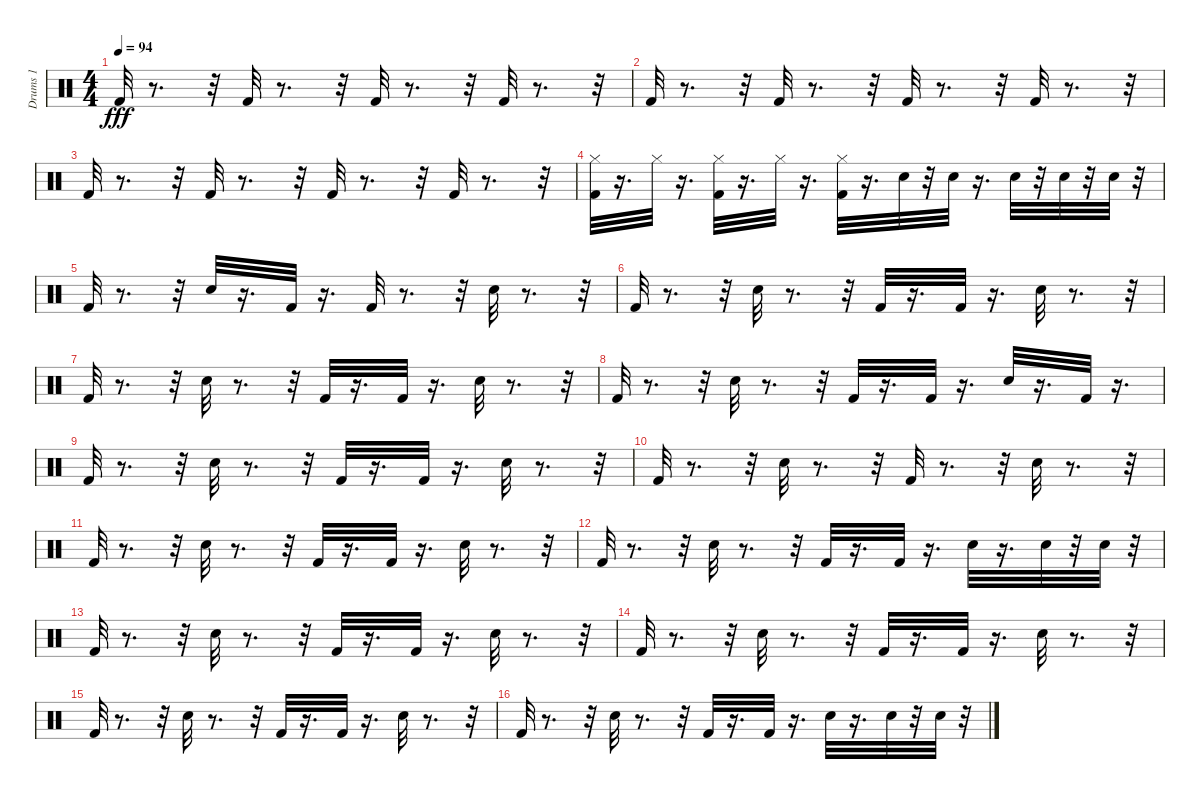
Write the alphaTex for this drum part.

\track ("Drums 1" "Drums 1") {instrument percussion}
\staff {score}
\articulation defaults
\ts (4 4)
\tempo 94
\clef neutral
\ks c "Kick (hit) 2".32{dy fff}
r.8{d} r.32 "Kick (hit) 2".32 r.8{d} r.32 "Kick (hit) 2".32 r.8{d} r.32 "Kick (hit) 2".32 r.8{d} r.32 |
"Kick (hit) 2".32 r.8{d} r.32 "Kick (hit) 2".32 r.8{d} r.32 "Kick (hit) 2".32 r.8{d} r.32 "Kick (hit) 2".32 r.8{d} r.32 |
"Kick (hit) 2".32 r.8{d} r.32 "Kick (hit) 2".32 r.8{d} r.32 "Kick (hit) 2".32 r.8{d} r.32 "Kick (hit) 2".32 r.8{d} r.32 |
("Kick (hit) 2" "Hi-Hat (closed)").32 r.16{d} "Hi-Hat (closed)".32 r.16{d} ("Kick (hit) 2" "Hi-Hat (closed)").32 r.16{d} "Hi-Hat (closed)".32 r.16{d} ("Hi-Hat (closed)" "Kick (hit) 2").32 r.16{d} "Electric Snare (hit)".32 r.32 "Electric Snare (hit)".32 r.16{d} "Electric Snare (hit)".32 r.32 "Electric Snare (hit)".32 r.32 "Electric Snare (hit)".32 r.32 |
"Kick (hit) 2".32 r.8{d} r.32 "Electric Snare (hit)".32 r.16{d} "Kick (hit) 2".32 r.16{d} "Kick (hit) 2".32 r.8{d} r.32 "Electric Snare (hit)".32 r.8{d} r.32 |
"Kick (hit) 2".32 r.8{d} r.32 "Electric Snare (hit)".32 r.8{d} r.32 "Kick (hit) 2".32 r.16{d} "Kick (hit) 2".32 r.16{d} "Electric Snare (hit)".32 r.8{d} r.32 |
"Kick (hit) 2".32 r.8{d} r.32 "Electric Snare (hit)".32 r.8{d} r.32 "Kick (hit) 2".32 r.16{d} "Kick (hit) 2".32 r.16{d} "Electric Snare (hit)".32 r.8{d} r.32 |
"Kick (hit) 2".32 r.8{d} r.32 "Electric Snare (hit)".32 r.8{d} r.32 "Kick (hit) 2".32 r.16{d} "Kick (hit) 2".32 r.16{d} "Electric Snare (hit)".32 r.16{d} "Kick (hit) 2".32 r.16{d} |
"Kick (hit) 2".32 r.8{d} r.32 "Electric Snare (hit)".32 r.8{d} r.32 "Kick (hit) 2".32 r.16{d} "Kick (hit) 2".32 r.16{d} "Electric Snare (hit)".32 r.8{d} r.32 |
"Kick (hit) 2".32 r.8{d} r.32 "Electric Snare (hit)".32 r.8{d} r.32 "Kick (hit) 2".32 r.8{d} r.32 "Electric Snare (hit)".32 r.8{d} r.32 |
"Kick (hit) 2".32 r.8{d} r.32 "Electric Snare (hit)".32 r.8{d} r.32 "Kick (hit) 2".32 r.16{d} "Kick (hit) 2".32 r.16{d} "Electric Snare (hit)".32 r.8{d} r.32 |
"Kick (hit) 2".32 r.8{d} r.32 "Electric Snare (hit)".32 r.8{d} r.32 "Kick (hit) 2".32 r.16{d} "Kick (hit) 2".32 r.16{d} "Electric Snare (hit)".32 r.16{d} "Electric Snare (hit)".32 r.32 "Electric Snare (hit)".32 r.32 |
"Kick (hit) 2".32 r.8{d} r.32 "Electric Snare (hit)".32 r.8{d} r.32 "Kick (hit) 2".32 r.16{d} "Kick (hit) 2".32 r.16{d} "Electric Snare (hit)".32 r.8{d} r.32 |
"Kick (hit) 2".32 r.8{d} r.32 "Electric Snare (hit)".32 r.8{d} r.32 "Kick (hit) 2".32 r.16{d} "Kick (hit) 2".32 r.16{d} "Electric Snare (hit)".32 r.8{d} r.32 |
"Kick (hit) 2".32 r.8{d} r.32 "Electric Snare (hit)".32 r.8{d} r.32 "Kick (hit) 2".32 r.16{d} "Kick (hit) 2".32 r.16{d} "Electric Snare (hit)".32 r.8{d} r.32 |
"Kick (hit) 2".32 r.8{d} r.32 "Electric Snare (hit)".32 r.8{d} r.32 "Kick (hit) 2".32 r.16{d} "Kick (hit) 2".32 r.16{d} "Electric Snare (hit)".32 r.16{d} "Electric Snare (hit)".32 r.32 "Electric Snare (hit)".32 r.32
